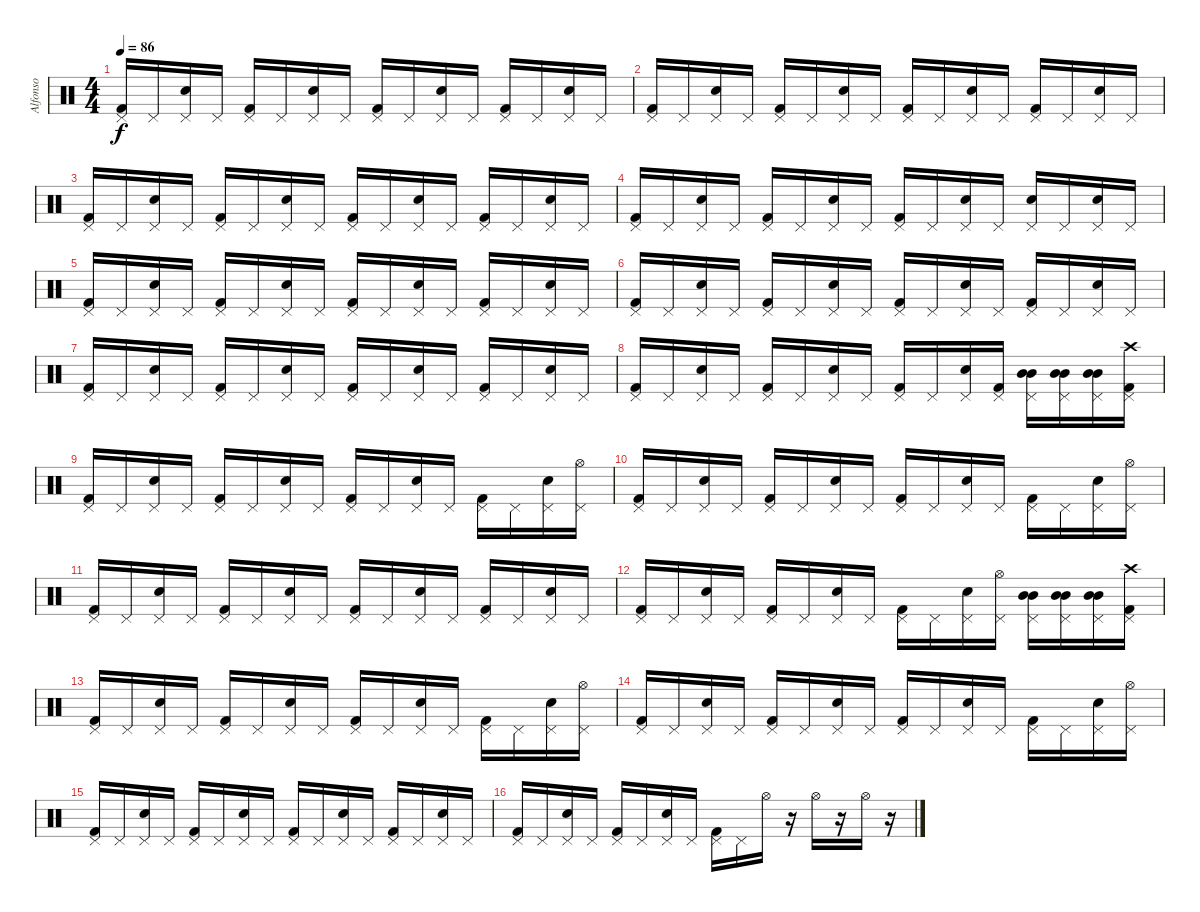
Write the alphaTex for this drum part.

\track ("Alfonso" "Alfonso") {instrument percussion}
\staff {score}
\articulation defaults
\ts (4 4)
\tempo 86
\clef neutral
\ks c
("Pedal Hi-Hat (hit)" "Kick (hit) 2").16{dy f} "Pedal Hi-Hat (hit)".16 ("Pedal Hi-Hat (hit)" "Electric Snare (hit)").16 "Pedal Hi-Hat (hit)".16 ("Pedal Hi-Hat (hit)" "Kick (hit) 2").16 "Pedal Hi-Hat (hit)".16 ("Pedal Hi-Hat (hit)" "Electric Snare (hit)").16 "Pedal Hi-Hat (hit)".16 ("Pedal Hi-Hat (hit)" "Kick (hit) 2").16 "Pedal Hi-Hat (hit)".16 ("Pedal Hi-Hat (hit)" "Electric Snare (hit)").16 "Pedal Hi-Hat (hit)".16 ("Pedal Hi-Hat (hit)" "Kick (hit) 2").16 "Pedal Hi-Hat (hit)".16 ("Pedal Hi-Hat (hit)" "Electric Snare (hit)").16 "Pedal Hi-Hat (hit)".16 |
("Pedal Hi-Hat (hit)" "Kick (hit) 2").16 "Pedal Hi-Hat (hit)".16 ("Pedal Hi-Hat (hit)" "Electric Snare (hit)").16 "Pedal Hi-Hat (hit)".16 ("Pedal Hi-Hat (hit)" "Kick (hit) 2").16 "Pedal Hi-Hat (hit)".16 ("Pedal Hi-Hat (hit)" "Electric Snare (hit)").16 "Pedal Hi-Hat (hit)".16 ("Pedal Hi-Hat (hit)" "Kick (hit) 2").16 "Pedal Hi-Hat (hit)".16 ("Pedal Hi-Hat (hit)" "Electric Snare (hit)").16 "Pedal Hi-Hat (hit)".16 ("Pedal Hi-Hat (hit)" "Kick (hit) 2").16 "Pedal Hi-Hat (hit)".16 ("Pedal Hi-Hat (hit)" "Electric Snare (hit)").16 "Pedal Hi-Hat (hit)".16 |
("Pedal Hi-Hat (hit)" "Kick (hit) 2").16 "Pedal Hi-Hat (hit)".16 ("Pedal Hi-Hat (hit)" "Electric Snare (hit)").16 "Pedal Hi-Hat (hit)".16 ("Pedal Hi-Hat (hit)" "Kick (hit) 2").16 "Pedal Hi-Hat (hit)".16 ("Pedal Hi-Hat (hit)" "Electric Snare (hit)").16 "Pedal Hi-Hat (hit)".16 ("Pedal Hi-Hat (hit)" "Kick (hit) 2").16 "Pedal Hi-Hat (hit)".16 ("Pedal Hi-Hat (hit)" "Electric Snare (hit)").16 "Pedal Hi-Hat (hit)".16 ("Pedal Hi-Hat (hit)" "Kick (hit) 2").16 "Pedal Hi-Hat (hit)".16 ("Pedal Hi-Hat (hit)" "Electric Snare (hit)").16 "Pedal Hi-Hat (hit)".16 |
("Pedal Hi-Hat (hit)" "Kick (hit) 2").16 "Pedal Hi-Hat (hit)".16 ("Pedal Hi-Hat (hit)" "Electric Snare (hit)").16 "Pedal Hi-Hat (hit)".16 ("Pedal Hi-Hat (hit)" "Kick (hit) 2").16 "Pedal Hi-Hat (hit)".16 ("Pedal Hi-Hat (hit)" "Electric Snare (hit)").16 "Pedal Hi-Hat (hit)".16 ("Pedal Hi-Hat (hit)" "Kick (hit) 2").16 "Pedal Hi-Hat (hit)".16 ("Pedal Hi-Hat (hit)" "Electric Snare (hit)").16 "Pedal Hi-Hat (hit)".16 ("Pedal Hi-Hat (hit)" "Electric Snare (hit)").16 "Pedal Hi-Hat (hit)".16 ("Pedal Hi-Hat (hit)" "Electric Snare (hit)").16 "Pedal Hi-Hat (hit)".16 |
("Pedal Hi-Hat (hit)" "Kick (hit) 2").16 "Pedal Hi-Hat (hit)".16 ("Pedal Hi-Hat (hit)" "Electric Snare (hit)").16 "Pedal Hi-Hat (hit)".16 ("Pedal Hi-Hat (hit)" "Kick (hit) 2").16 "Pedal Hi-Hat (hit)".16 ("Pedal Hi-Hat (hit)" "Electric Snare (hit)").16 "Pedal Hi-Hat (hit)".16 ("Pedal Hi-Hat (hit)" "Kick (hit) 2").16 "Pedal Hi-Hat (hit)".16 ("Pedal Hi-Hat (hit)" "Electric Snare (hit)").16 "Pedal Hi-Hat (hit)".16 ("Pedal Hi-Hat (hit)" "Kick (hit) 2").16 "Pedal Hi-Hat (hit)".16 ("Pedal Hi-Hat (hit)" "Electric Snare (hit)").16 "Pedal Hi-Hat (hit)".16 |
("Pedal Hi-Hat (hit)" "Kick (hit) 2").16 "Pedal Hi-Hat (hit)".16 ("Pedal Hi-Hat (hit)" "Electric Snare (hit)").16 "Pedal Hi-Hat (hit)".16 ("Pedal Hi-Hat (hit)" "Kick (hit) 2").16 "Pedal Hi-Hat (hit)".16 ("Pedal Hi-Hat (hit)" "Electric Snare (hit)").16 "Pedal Hi-Hat (hit)".16 ("Pedal Hi-Hat (hit)" "Kick (hit) 2").16 "Pedal Hi-Hat (hit)".16 ("Pedal Hi-Hat (hit)" "Electric Snare (hit)").16 "Pedal Hi-Hat (hit)".16 ("Pedal Hi-Hat (hit)" "Kick (hit) 2").16 "Pedal Hi-Hat (hit)".16 ("Pedal Hi-Hat (hit)" "Electric Snare (hit)").16 "Pedal Hi-Hat (hit)".16 |
("Pedal Hi-Hat (hit)" "Kick (hit) 2").16 "Pedal Hi-Hat (hit)".16 ("Pedal Hi-Hat (hit)" "Electric Snare (hit)").16 "Pedal Hi-Hat (hit)".16 ("Pedal Hi-Hat (hit)" "Kick (hit) 2").16 "Pedal Hi-Hat (hit)".16 ("Pedal Hi-Hat (hit)" "Electric Snare (hit)").16 "Pedal Hi-Hat (hit)".16 ("Pedal Hi-Hat (hit)" "Kick (hit) 2").16 "Pedal Hi-Hat (hit)".16 ("Pedal Hi-Hat (hit)" "Electric Snare (hit)").16 "Pedal Hi-Hat (hit)".16 ("Pedal Hi-Hat (hit)" "Kick (hit) 2").16 "Pedal Hi-Hat (hit)".16 ("Pedal Hi-Hat (hit)" "Electric Snare (hit)").16 "Pedal Hi-Hat (hit)".16 |
("Pedal Hi-Hat (hit)" "Kick (hit) 2").16 "Pedal Hi-Hat (hit)".16 ("Pedal Hi-Hat (hit)" "Electric Snare (hit)").16 "Pedal Hi-Hat (hit)".16 ("Pedal Hi-Hat (hit)" "Kick (hit) 2").16 "Pedal Hi-Hat (hit)".16 ("Pedal Hi-Hat (hit)" "Electric Snare (hit)").16 "Pedal Hi-Hat (hit)".16 ("Pedal Hi-Hat (hit)" "Kick (hit) 2").16 "Pedal Hi-Hat (hit)".16 ("Pedal Hi-Hat (hit)" "Electric Snare (hit)").16 ("Pedal Hi-Hat (hit)" "Kick (hit) 2").16 ("Pedal Hi-Hat (hit)" "Mid Tom (hit)" "Mid Tom (hit)").16 ("Pedal Hi-Hat (hit)" "Mid Tom (hit)" "Mid Tom (hit)").16 ("Pedal Hi-Hat (hit)" "Mid Tom (hit)" "Mid Tom (hit)").16 ("Pedal Hi-Hat (hit)" "Crash high (hit)" "Kick (hit) 2").16 |
("Pedal Hi-Hat (hit)" "Kick (hit) 2").16 "Pedal Hi-Hat (hit)".16 ("Pedal Hi-Hat (hit)" "Electric Snare (hit)").16 "Pedal Hi-Hat (hit)".16 ("Pedal Hi-Hat (hit)" "Kick (hit) 2").16 "Pedal Hi-Hat (hit)".16 ("Pedal Hi-Hat (hit)" "Electric Snare (hit)").16 "Pedal Hi-Hat (hit)".16 ("Pedal Hi-Hat (hit)" "Kick (hit) 2").16 "Pedal Hi-Hat (hit)".16 ("Pedal Hi-Hat (hit)" "Electric Snare (hit)").16 "Pedal Hi-Hat (hit)".16 ("Pedal Hi-Hat (hit)" "Kick (hit) 2").16 "Pedal Hi-Hat (hit)".16 ("Pedal Hi-Hat (hit)" "Electric Snare (hit)").16 ("Pedal Hi-Hat (hit)" "Hi-Hat (open)").16 |
("Pedal Hi-Hat (hit)" "Kick (hit) 2").16 "Pedal Hi-Hat (hit)".16 ("Pedal Hi-Hat (hit)" "Electric Snare (hit)").16 "Pedal Hi-Hat (hit)".16 ("Pedal Hi-Hat (hit)" "Kick (hit) 2").16 "Pedal Hi-Hat (hit)".16 ("Pedal Hi-Hat (hit)" "Electric Snare (hit)").16 "Pedal Hi-Hat (hit)".16 ("Pedal Hi-Hat (hit)" "Kick (hit) 2").16 "Pedal Hi-Hat (hit)".16 ("Pedal Hi-Hat (hit)" "Electric Snare (hit)").16 "Pedal Hi-Hat (hit)".16 ("Pedal Hi-Hat (hit)" "Kick (hit) 2").16 "Pedal Hi-Hat (hit)".16 ("Pedal Hi-Hat (hit)" "Electric Snare (hit)").16 ("Pedal Hi-Hat (hit)" "Hi-Hat (open)").16 |
("Pedal Hi-Hat (hit)" "Kick (hit) 2").16 "Pedal Hi-Hat (hit)".16 ("Pedal Hi-Hat (hit)" "Electric Snare (hit)").16 "Pedal Hi-Hat (hit)".16 ("Pedal Hi-Hat (hit)" "Kick (hit) 2").16 "Pedal Hi-Hat (hit)".16 ("Pedal Hi-Hat (hit)" "Electric Snare (hit)").16 "Pedal Hi-Hat (hit)".16 ("Pedal Hi-Hat (hit)" "Kick (hit) 2").16 "Pedal Hi-Hat (hit)".16 ("Pedal Hi-Hat (hit)" "Electric Snare (hit)").16 "Pedal Hi-Hat (hit)".16 ("Pedal Hi-Hat (hit)" "Kick (hit) 2").16 "Pedal Hi-Hat (hit)".16 ("Pedal Hi-Hat (hit)" "Electric Snare (hit)").16 "Pedal Hi-Hat (hit)".16 |
("Pedal Hi-Hat (hit)" "Kick (hit) 2").16 "Pedal Hi-Hat (hit)".16 ("Pedal Hi-Hat (hit)" "Electric Snare (hit)").16 "Pedal Hi-Hat (hit)".16 ("Pedal Hi-Hat (hit)" "Kick (hit) 2").16 "Pedal Hi-Hat (hit)".16 ("Pedal Hi-Hat (hit)" "Electric Snare (hit)").16 "Pedal Hi-Hat (hit)".16 ("Pedal Hi-Hat (hit)" "Kick (hit) 2").16 "Pedal Hi-Hat (hit)".16 ("Pedal Hi-Hat (hit)" "Electric Snare (hit)").16 ("Pedal Hi-Hat (hit)" "Hi-Hat (open)").16 ("Pedal Hi-Hat (hit)" "Mid Tom (hit)" "Mid Tom (hit)").16 ("Pedal Hi-Hat (hit)" "Mid Tom (hit)" "Mid Tom (hit)").16 ("Pedal Hi-Hat (hit)" "Mid Tom (hit)" "Mid Tom (hit)").16 ("Pedal Hi-Hat (hit)" "Crash high (hit)" "Kick (hit) 2").16 |
("Pedal Hi-Hat (hit)" "Kick (hit) 2").16 "Pedal Hi-Hat (hit)".16 ("Pedal Hi-Hat (hit)" "Electric Snare (hit)").16 "Pedal Hi-Hat (hit)".16 ("Pedal Hi-Hat (hit)" "Kick (hit) 2").16 "Pedal Hi-Hat (hit)".16 ("Pedal Hi-Hat (hit)" "Electric Snare (hit)").16 "Pedal Hi-Hat (hit)".16 ("Pedal Hi-Hat (hit)" "Kick (hit) 2").16 "Pedal Hi-Hat (hit)".16 ("Pedal Hi-Hat (hit)" "Electric Snare (hit)").16 "Pedal Hi-Hat (hit)".16 ("Pedal Hi-Hat (hit)" "Kick (hit) 2").16 "Pedal Hi-Hat (hit)".16 ("Pedal Hi-Hat (hit)" "Electric Snare (hit)").16 ("Pedal Hi-Hat (hit)" "Hi-Hat (open)").16 |
("Pedal Hi-Hat (hit)" "Kick (hit) 2").16 "Pedal Hi-Hat (hit)".16 ("Pedal Hi-Hat (hit)" "Electric Snare (hit)").16 "Pedal Hi-Hat (hit)".16 ("Pedal Hi-Hat (hit)" "Kick (hit) 2").16 "Pedal Hi-Hat (hit)".16 ("Pedal Hi-Hat (hit)" "Electric Snare (hit)").16 "Pedal Hi-Hat (hit)".16 ("Pedal Hi-Hat (hit)" "Kick (hit) 2").16 "Pedal Hi-Hat (hit)".16 ("Pedal Hi-Hat (hit)" "Electric Snare (hit)").16 "Pedal Hi-Hat (hit)".16 ("Pedal Hi-Hat (hit)" "Kick (hit) 2").16 "Pedal Hi-Hat (hit)".16 ("Pedal Hi-Hat (hit)" "Electric Snare (hit)").16 ("Pedal Hi-Hat (hit)" "Hi-Hat (open)").16 |
("Pedal Hi-Hat (hit)" "Kick (hit) 2").16 "Pedal Hi-Hat (hit)".16 ("Pedal Hi-Hat (hit)" "Electric Snare (hit)").16 "Pedal Hi-Hat (hit)".16 ("Pedal Hi-Hat (hit)" "Kick (hit) 2").16 "Pedal Hi-Hat (hit)".16 ("Pedal Hi-Hat (hit)" "Electric Snare (hit)").16 "Pedal Hi-Hat (hit)".16 ("Pedal Hi-Hat (hit)" "Kick (hit) 2").16 "Pedal Hi-Hat (hit)".16 ("Pedal Hi-Hat (hit)" "Electric Snare (hit)").16 "Pedal Hi-Hat (hit)".16 ("Pedal Hi-Hat (hit)" "Kick (hit) 2").16 "Pedal Hi-Hat (hit)".16 ("Pedal Hi-Hat (hit)" "Electric Snare (hit)").16 "Pedal Hi-Hat (hit)".16 |
("Pedal Hi-Hat (hit)" "Kick (hit) 2").16 "Pedal Hi-Hat (hit)".16 ("Pedal Hi-Hat (hit)" "Electric Snare (hit)").16 "Pedal Hi-Hat (hit)".16 ("Pedal Hi-Hat (hit)" "Kick (hit) 2").16 "Pedal Hi-Hat (hit)".16 ("Pedal Hi-Hat (hit)" "Electric Snare (hit)").16 "Pedal Hi-Hat (hit)".16 ("Pedal Hi-Hat (hit)" "Kick (hit) 2").16 "Pedal Hi-Hat (hit)".16 "Hi-Hat (open)".16 r.16 "Hi-Hat (open)".16 r.16 "Hi-Hat (open)".16 r.16
